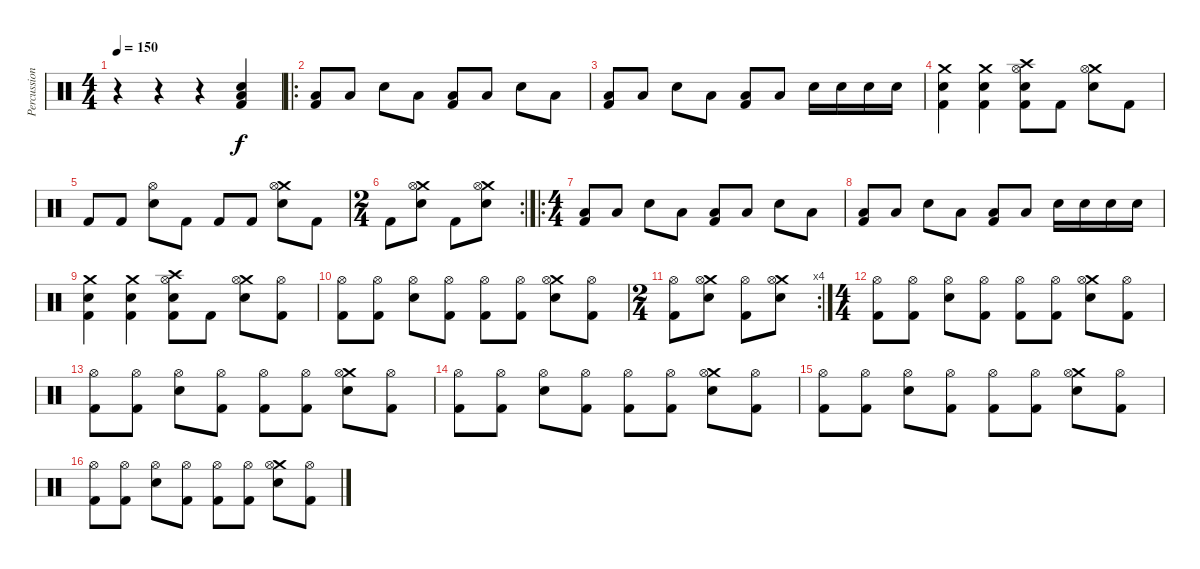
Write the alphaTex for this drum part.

\track ("Percussion" "Percussion") {instrument percussion}
\staff {score}
\articulation defaults
\ts (4 4)
\tempo 150
\clef neutral
\ks c
r.4{dy f} r.4 r.4 ("Snare (hit) 2" "Low Floor Tom (hit)" "Kick (hit) 2").4 |
\ro
("Low Floor Tom (hit)" "Kick (hit) 2").8 "Low Floor Tom (hit)".8 "Snare (hit) 2".8 "Low Floor Tom (hit)".8 ("Low Floor Tom (hit)" "Kick (hit) 2").8 "Low Floor Tom (hit)".8 "Snare (hit) 2".8 "Low Floor Tom (hit)".8 |
("Low Floor Tom (hit)" "Kick (hit) 2").8 "Low Floor Tom (hit)".8 "Snare (hit) 2".8 "Low Floor Tom (hit)".8 ("Low Floor Tom (hit)" "Kick (hit) 2").8 "Low Floor Tom (hit)".8 "Snare (hit) 2".16 "Snare (hit) 2".16 "Snare (hit) 2".16 "Snare (hit) 2".16 |
("Crash medium (hit)" "Snare (hit) 2" "Kick (hit) 2").4 ("Crash medium (hit)" "Snare (hit) 2" "Kick (hit) 2").4 ("Crash high (hit)" "Hi-Hat (open)" "Snare (hit) 2" "Kick (hit) 2").8 "Kick (hit) 2".8 ("Crash medium (hit)" "Hi-Hat (open)" "Snare (hit) 2").8 "Kick (hit) 2".8 |
"Kick (hit) 2".8 "Kick (hit) 2".8 ("Hi-Hat (open)" "Snare (hit) 2").8 "Kick (hit) 2".8 "Kick (hit) 2".8 "Kick (hit) 2".8 ("Crash medium (hit)" "Hi-Hat (open)" "Snare (hit) 2").8 "Kick (hit) 2".8 |
\rc 2
\ts (2 4)
"Kick (hit) 2".8 ("Crash medium (hit)" "Hi-Hat (open)" "Snare (hit) 2").8 "Kick (hit) 2".8 ("Crash medium (hit)" "Hi-Hat (open)" "Snare (hit) 2").8 |
\ro
\ts (4 4)
("Low Floor Tom (hit)" "Kick (hit) 2").8 "Low Floor Tom (hit)".8 "Snare (hit) 2".8 "Low Floor Tom (hit)".8 ("Low Floor Tom (hit)" "Kick (hit) 2").8 "Low Floor Tom (hit)".8 "Snare (hit) 2".8 "Low Floor Tom (hit)".8 |
("Low Floor Tom (hit)" "Kick (hit) 2").8 "Low Floor Tom (hit)".8 "Snare (hit) 2".8 "Low Floor Tom (hit)".8 ("Low Floor Tom (hit)" "Kick (hit) 2").8 "Low Floor Tom (hit)".8 "Snare (hit) 2".16 "Snare (hit) 2".16 "Snare (hit) 2".16 "Snare (hit) 2".16 |
("Crash medium (hit)" "Snare (hit) 2" "Kick (hit) 2").4 ("Crash medium (hit)" "Snare (hit) 2" "Kick (hit) 2").4 ("Crash high (hit)" "Hi-Hat (open)" "Snare (hit) 2" "Kick (hit) 2").8 "Kick (hit) 2".8 ("Crash medium (hit)" "Hi-Hat (open)" "Snare (hit) 2").8 ("Hi-Hat (open)" "Kick (hit) 2").8 |
("Hi-Hat (open)" "Kick (hit) 2").8 ("Hi-Hat (open)" "Kick (hit) 2").8 ("Hi-Hat (open)" "Snare (hit) 2").8 ("Hi-Hat (open)" "Kick (hit) 2").8 ("Hi-Hat (open)" "Kick (hit) 2").8 ("Hi-Hat (open)" "Kick (hit) 2").8 ("Crash medium (hit)" "Hi-Hat (open)" "Snare (hit) 2").8 ("Hi-Hat (open)" "Kick (hit) 2").8 |
\rc 4
\ts (2 4)
("Hi-Hat (open)" "Kick (hit) 2").8 ("Crash medium (hit)" "Hi-Hat (open)" "Snare (hit) 2").8 ("Hi-Hat (open)" "Kick (hit) 2").8 ("Crash medium (hit)" "Hi-Hat (open)" "Snare (hit) 2").8 |
\ts (4 4)
("Hi-Hat (open)" "Kick (hit) 2").8 ("Hi-Hat (open)" "Kick (hit) 2").8 ("Hi-Hat (open)" "Snare (hit) 2").8 ("Hi-Hat (open)" "Kick (hit) 2").8 ("Hi-Hat (open)" "Kick (hit) 2").8 ("Hi-Hat (open)" "Kick (hit) 2").8 ("Crash medium (hit)" "Hi-Hat (open)" "Snare (hit) 2").8 ("Hi-Hat (open)" "Kick (hit) 2").8 |
("Hi-Hat (open)" "Kick (hit) 2").8 ("Hi-Hat (open)" "Kick (hit) 2").8 ("Hi-Hat (open)" "Snare (hit) 2").8 ("Hi-Hat (open)" "Kick (hit) 2").8 ("Hi-Hat (open)" "Kick (hit) 2").8 ("Hi-Hat (open)" "Kick (hit) 2").8 ("Crash medium (hit)" "Hi-Hat (open)" "Snare (hit) 2").8 ("Hi-Hat (open)" "Kick (hit) 2").8 |
("Hi-Hat (open)" "Kick (hit) 2").8 ("Hi-Hat (open)" "Kick (hit) 2").8 ("Hi-Hat (open)" "Snare (hit) 2").8 ("Hi-Hat (open)" "Kick (hit) 2").8 ("Hi-Hat (open)" "Kick (hit) 2").8 ("Hi-Hat (open)" "Kick (hit) 2").8 ("Crash medium (hit)" "Hi-Hat (open)" "Snare (hit) 2").8 ("Hi-Hat (open)" "Kick (hit) 2").8 |
("Hi-Hat (open)" "Kick (hit) 2").8 ("Hi-Hat (open)" "Kick (hit) 2").8 ("Hi-Hat (open)" "Snare (hit) 2").8 ("Hi-Hat (open)" "Kick (hit) 2").8 ("Hi-Hat (open)" "Kick (hit) 2").8 ("Hi-Hat (open)" "Kick (hit) 2").8 ("Crash medium (hit)" "Hi-Hat (open)" "Snare (hit) 2").8 ("Hi-Hat (open)" "Kick (hit) 2").8 |
("Hi-Hat (open)" "Kick (hit) 2").8 ("Hi-Hat (open)" "Kick (hit) 2").8 ("Hi-Hat (open)" "Snare (hit) 2").8 ("Hi-Hat (open)" "Kick (hit) 2").8 ("Hi-Hat (open)" "Kick (hit) 2").8 ("Hi-Hat (open)" "Kick (hit) 2").8 ("Crash medium (hit)" "Hi-Hat (open)" "Snare (hit) 2").8 ("Hi-Hat (open)" "Kick (hit) 2").8
